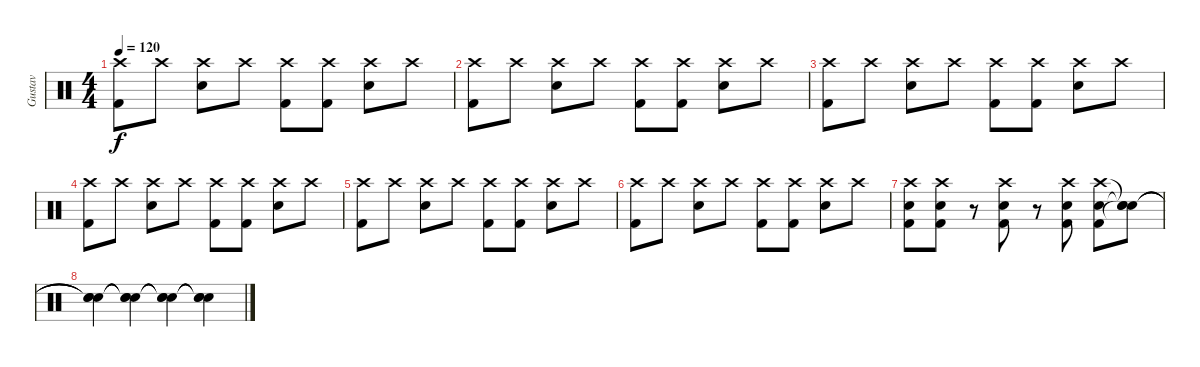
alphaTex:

\track ("Gustav" "Gustav") {instrument percussion}
\staff {score}
\articulation defaults
\ts (4 4)
\tempo 120
\clef neutral
\ks c
("Crash high (hit)" "Kick (hit) 2").8{dy f} "Crash high (hit)".8 ("Snare (hit) 2" "Crash high (hit)").8 "Crash high (hit)".8 ("Kick (hit) 2" "Crash high (hit)").8 ("Crash high (hit)" "Kick (hit) 2").8 ("Snare (hit) 2" "Crash high (hit)").8 "Crash high (hit)".8 |
("Crash high (hit)" "Kick (hit) 2").8 "Crash high (hit)".8 ("Snare (hit) 2" "Crash high (hit)").8 "Crash high (hit)".8 ("Kick (hit) 2" "Crash high (hit)").8 ("Crash high (hit)" "Kick (hit) 2").8 ("Snare (hit) 2" "Crash high (hit)").8 "Crash high (hit)".8 |
("Crash high (hit)" "Kick (hit) 2").8 "Crash high (hit)".8 ("Snare (hit) 2" "Crash high (hit)").8 "Crash high (hit)".8 ("Kick (hit) 2" "Crash high (hit)").8 ("Crash high (hit)" "Kick (hit) 2").8 ("Snare (hit) 2" "Crash high (hit)").8 "Crash high (hit)".8 |
("Crash high (hit)" "Kick (hit) 2").8 "Crash high (hit)".8 ("Snare (hit) 2" "Crash high (hit)").8 "Crash high (hit)".8 ("Kick (hit) 2" "Crash high (hit)").8 ("Crash high (hit)" "Kick (hit) 2").8 ("Snare (hit) 2" "Crash high (hit)").8 "Crash high (hit)".8 |
("Crash high (hit)" "Kick (hit) 2").8 "Crash high (hit)".8 ("Snare (hit) 2" "Crash high (hit)").8 "Crash high (hit)".8 ("Kick (hit) 2" "Crash high (hit)").8 ("Crash high (hit)" "Kick (hit) 2").8 ("Snare (hit) 2" "Crash high (hit)").8 "Crash high (hit)".8 |
("Crash high (hit)" "Kick (hit) 2").8 "Crash high (hit)".8 ("Snare (hit) 2" "Crash high (hit)").8 "Crash high (hit)".8 ("Kick (hit) 2" "Crash high (hit)").8 ("Crash high (hit)" "Kick (hit) 2").8 ("Snare (hit) 2" "Crash high (hit)").8 "Crash high (hit)".8 |
("Kick (hit) 2" "Snare (hit) 2" "Crash high (hit)").8 ("Kick (hit) 2" "Snare (hit) 2" "Crash high (hit)").8 r.8 ("Kick (hit) 2" "Snare (hit) 2" "Crash high (hit)").8 r.8 ("Kick (hit) 2" "Snare (hit) 2" "Crash high (hit)").8 ("Kick (hit) 2" "Snare (hit) 2" "Crash high (hit)").8 ("Snare (hit)"{t} "Snare (hit)"{t} "Snare (hit)"{t}).8 |
("Snare (hit)"{t} "Snare (hit)"{t} "Snare (hit)"{t}).4 ("Snare (hit)"{t} "Snare (hit)"{t} "Snare (hit)"{t}).4 ("Snare (hit)"{t} "Snare (hit)"{t} "Snare (hit)"{t}).4 ("Snare (hit)"{t} "Snare (hit)"{t} "Snare (hit)"{t}).4
